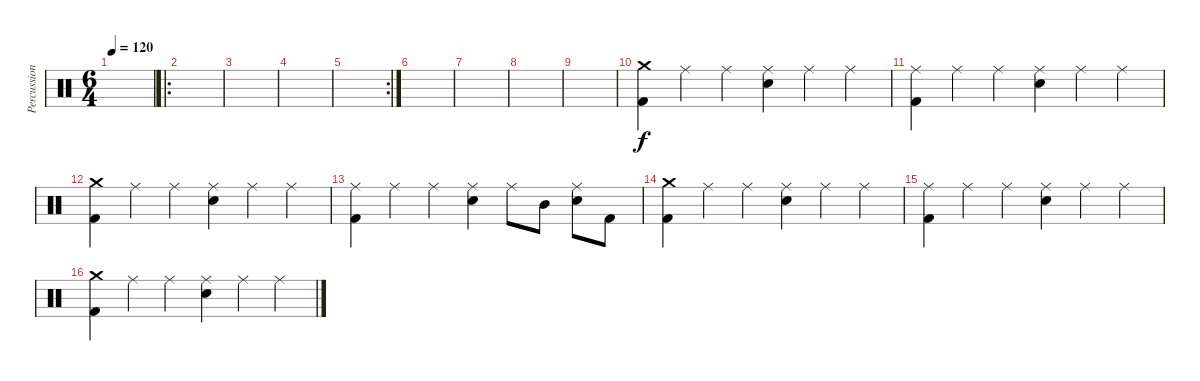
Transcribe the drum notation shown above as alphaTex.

\track ("Percussion" "Percussion") {instrument percussion}
\staff {score}
\articulation defaults
\ts (6 4)
\tempo 120
\clef neutral
\ks c
|
\ro
|
|
|
\rc 2
|
|
|
|
|
("Crash medium (hit)" "Kick (hit) 2").4 "Ride (middle)".4 "Ride (middle)".4 ("Ride (middle)" "Snare (hit) 2").4 "Ride (middle)".4 "Ride (middle)".4 |
("Ride (middle)" "Kick (hit) 2").4 "Ride (middle)".4 "Ride (middle)".4 ("Ride (middle)" "Snare (hit) 2").4 "Ride (middle)".4 "Ride (middle)".4 |
("Crash medium (hit)" "Kick (hit) 2").4 "Ride (middle)".4 "Ride (middle)".4 ("Ride (middle)" "Snare (hit) 2").4 "Ride (middle)".4 "Ride (middle)".4 |
("Ride (middle)" "Kick (hit) 2").4 "Ride (middle)".4 "Ride (middle)".4 ("Ride (middle)" "Snare (hit) 2").4 "Ride (middle)".8 "Mid Tom (hit)".8 ("Ride (middle)" "Snare (hit) 2").8 "Kick (hit) 2".8 |
("Crash medium (hit)" "Kick (hit) 2").4 "Ride (middle)".4 "Ride (middle)".4 ("Ride (middle)" "Snare (hit) 2").4 "Ride (middle)".4 "Ride (middle)".4 |
("Ride (middle)" "Kick (hit) 2").4 "Ride (middle)".4 "Ride (middle)".4 ("Ride (middle)" "Snare (hit) 2").4 "Ride (middle)".4 "Ride (middle)".4 |
("Crash medium (hit)" "Kick (hit) 2").4 "Ride (middle)".4 "Ride (middle)".4 ("Ride (middle)" "Snare (hit) 2").4 "Ride (middle)".4 "Ride (middle)".4
